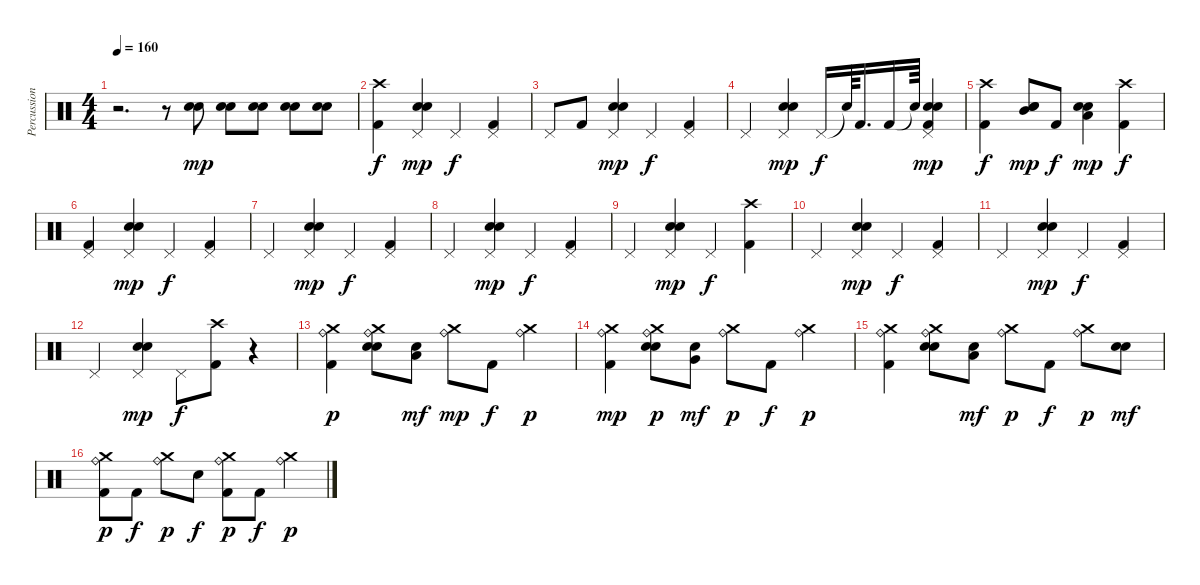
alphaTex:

\track ("Percussion" "Percussion") {instrument percussion}
\staff {score}
\articulation defaults
\ts (4 4)
\tempo 160
\clef neutral
\ks c
r.2{d dy f} r.8 ("Electric Snare (hit)" "Snare (hit) 2").8{dy mp} ("Electric Snare (hit)" "Snare (hit) 2").8 ("Electric Snare (hit)" "Snare (hit) 2").8 ("Electric Snare (hit)" "Snare (hit) 2").8 ("Electric Snare (hit)" "Snare (hit) 2").8 |
("Crash high (hit)" "Kick (hit) 2").4{dy f} ("Pedal Hi-Hat (hit)" "Snare (hit) 2" "Electric Snare (hit)").4{dy mp} "Pedal Hi-Hat (hit)".4{dy f} ("Pedal Hi-Hat (hit)" "Kick (hit) 2").4 |
"Pedal Hi-Hat (hit)".8 "Kick (hit) 2".8 ("Pedal Hi-Hat (hit)" "Snare (hit) 2" "Electric Snare (hit)").4{dy mp} "Pedal Hi-Hat (hit)".4{dy f} ("Pedal Hi-Hat (hit)" "Kick (hit) 2").4 |
"Pedal Hi-Hat (hit)".4 ("Pedal Hi-Hat (hit)" "Snare (hit) 2" "Electric Snare (hit)").4{dy mp} "Pedal Hi-Hat (hit)".16{dy f} "Snare (hit)"{t}.64 "Kick (hit) 2".16{d} "Kick (hit) 2".16 "Snare (hit)"{t}.64 ("Pedal Hi-Hat (hit)" "Snare (hit) 2" "Kick (hit) 2" "Electric Snare (hit)").4{dy mp} |
("Kick (hit) 2" "Crash high (hit)").4{dy f} ("Mid Tom (hit)" "Snare (hit) 2" "Electric Snare (hit)").8{dy mp} "Kick (hit) 2".8{dy f} ("Low Tom (hit)" "Snare (hit) 2" "Electric Snare (hit)").4{dy mp} ("Crash high (hit)" "Kick (hit) 2").4{dy f} |
("Pedal Hi-Hat (hit)" "Kick (hit) 2").4 ("Pedal Hi-Hat (hit)" "Snare (hit) 2" "Electric Snare (hit)").4{dy mp} "Pedal Hi-Hat (hit)".4{dy f} ("Kick (hit) 2" "Pedal Hi-Hat (hit)").4 |
"Pedal Hi-Hat (hit)".4 ("Snare (hit) 2" "Pedal Hi-Hat (hit)" "Electric Snare (hit)").4{dy mp} "Pedal Hi-Hat (hit)".4{dy f} ("Kick (hit) 2" "Pedal Hi-Hat (hit)").4 |
"Pedal Hi-Hat (hit)".4 ("Snare (hit) 2" "Pedal Hi-Hat (hit)" "Electric Snare (hit)").4{dy mp} "Pedal Hi-Hat (hit)".4{dy f} ("Kick (hit) 2" "Pedal Hi-Hat (hit)").4 |
"Pedal Hi-Hat (hit)".4 ("Snare (hit) 2" "Pedal Hi-Hat (hit)" "Electric Snare (hit)").4{dy mp} "Pedal Hi-Hat (hit)".4{dy f} ("Crash high (hit)" "Kick (hit) 2").4 |
"Pedal Hi-Hat (hit)".4 ("Pedal Hi-Hat (hit)" "Snare (hit) 2" "Electric Snare (hit)").4{dy mp} "Pedal Hi-Hat (hit)".4{dy f} ("Kick (hit) 2" "Pedal Hi-Hat (hit)").4 |
"Pedal Hi-Hat (hit)".4 ("Snare (hit) 2" "Pedal Hi-Hat (hit)" "Electric Snare (hit)").4{dy mp} "Pedal Hi-Hat (hit)".4{dy f} ("Pedal Hi-Hat (hit)" "Kick (hit) 2").4 |
"Pedal Hi-Hat (hit)".4 ("Pedal Hi-Hat (hit)" "Snare (hit) 2" "Electric Snare (hit)").4{dy mp} "Pedal Hi-Hat (hit)".8{dy f} ("Crash high (hit)" "Kick (hit) 2").8 r.4 |
("Kick (hit) 2" "Ride (bell)" "Crash medium (hit)").4{dy p} ("Snare (hit) 2" "Ride (bell)" "Electric Snare (hit)" "Crash medium (hit)").8 ("Low Floor Tom (hit)" "Snare (hit) 2").8{dy mf} ("Ride (bell)" "Crash medium (hit)").8{dy mp} "Kick (hit) 2".8{dy f} ("Ride (bell)" "Crash medium (hit)").4{dy p} |
("Kick (hit) 2" "Ride (bell)" "Crash medium (hit)").4{dy mp} ("Snare (hit) 2" "Ride (bell)" "Electric Snare (hit)" "Crash medium (hit)").8{dy p} ("Very Low Tom (hit)" "Snare (hit) 2").8{dy mf} ("Ride (bell)" "Crash medium (hit)").8{dy p} "Kick (hit) 2".8{dy f} ("Ride (bell)" "Crash medium (hit)").4{dy p} |
("Kick (hit) 2" "Ride (bell)" "Crash medium (hit)").4 ("Snare (hit) 2" "Ride (bell)" "Electric Snare (hit)" "Crash medium (hit)").8 ("Low Floor Tom (hit)" "Snare (hit) 2").8{dy mf} ("Ride (bell)" "Crash medium (hit)").8{dy p} "Kick (hit) 2".8{dy f} ("Ride (bell)" "Crash medium (hit)").8{dy p} ("Snare (hit) 2" "Electric Snare (hit)").8{dy mf} |
("Ride (bell)" "Kick (hit) 2" "Crash medium (hit)").8{dy p} "Kick (hit) 2".8{dy f} ("Ride (bell)" "Crash medium (hit)").8{dy p} "Snare (hit) 2".8{dy f} ("Ride (bell)" "Kick (hit) 2" "Crash medium (hit)").8{dy p} "Kick (hit) 2".8{dy f} ("Ride (bell)" "Crash medium (hit)").4{dy p}
